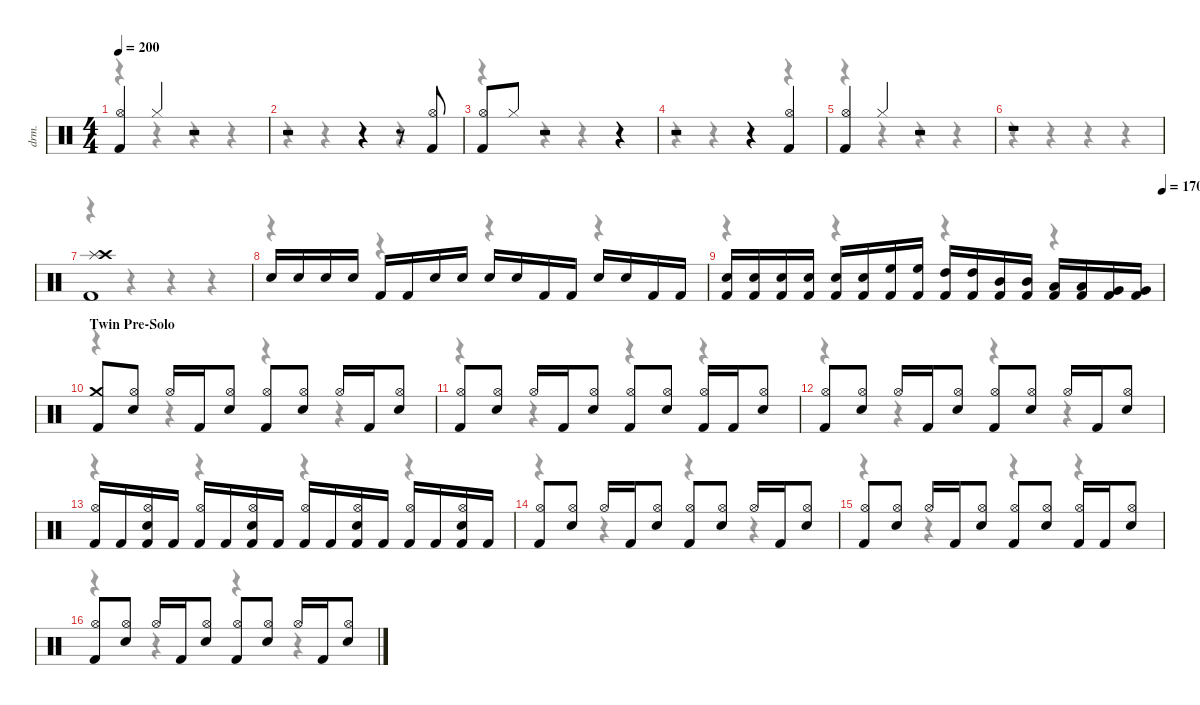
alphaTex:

\defaultSystemsLayout 4
\hideDynamics
\bracketExtendMode nobrackets
\otherSystemsTrackNameOrientation horizontal
\track ("David Mackintosh (Drums)" "drm.") {instrument percussion}
\staff {score}
\articulation defaults
\voice
\ts (4 4)
\tempo 200
\clef neutral
\ks c
("Kick (hit) 2" "Hi-Hat (open)").4{dy f} "Hi-Hat (closed)".4{dy ppp} r.2 |
r.2 r.4 r.8 ("Kick (hit) 2" "Hi-Hat (open)").8{dy f} |
("Kick (hit) 2" "Hi-Hat (open)").8 "Hi-Hat (closed)".8{dy ppp} r.2 r.4 |
r.2 r.4 ("Kick (hit) 2" "Hi-Hat (open)").4{dy f} |
("Kick (hit) 2" "Hi-Hat (open)").4 "Hi-Hat (closed)".4{dy ppp} r.2 |
r.1 |
("Kick (hit) 2" "Splash (hit)" "Crash high (hit)").1{dy f} |
"Snare (hit) 2".16 "Snare (hit) 2".16 "Snare (hit) 2".16 "Snare (hit) 2".16 "Kick (hit) 2".16 "Kick (hit) 2".16 "Snare (hit) 2".16 "Snare (hit) 2".16 "Snare (hit) 2".16 "Snare (hit) 2".16 "Kick (hit) 2".16 "Kick (hit) 2".16 "Snare (hit) 2".16 "Snare (hit) 2".16 "Kick (hit) 2".16 "Kick (hit) 2".16 |
\tempo (170 1)
("Kick (hit) 2" "Snare (hit) 2").16 ("Kick (hit) 2" "Snare (hit) 2").16 ("Kick (hit) 2" "Snare (hit) 2").16 ("Kick (hit) 2" "Snare (hit) 2").16 ("Kick (hit) 2" "Snare (hit) 2").16 ("Kick (hit) 2" "Snare (hit) 2").16 ("Kick (hit) 2" "High Floor Tom (hit)").16 ("Kick (hit) 2" "High Floor Tom (hit)").16 ("Kick (hit) 2" "High Tom (hit)").16 ("Kick (hit) 2" "High Tom (hit)").16 ("Kick (hit) 2" "Mid Tom (hit)").16 ("Kick (hit) 2" "Mid Tom (hit)").16 ("Kick (hit) 2" "Low Tom (hit)").16 ("Kick (hit) 2" "Low Tom (hit)").16 ("Kick (hit) 2" "Very Low Tom (hit)").16 ("Kick (hit) 2" "Very Low Tom (hit)").16 |
\section ("" "Twin Pre-Solo")
("Kick (hit) 2" "Crash medium (hit)").8 ("Snare (hit) 2" "Hi-Hat (open)").8 "Hi-Hat (open)".16 "Kick (hit) 2".16 ("Snare (hit) 2" "Hi-Hat (open)").8 ("Kick (hit) 2" "Hi-Hat (open)").8 ("Snare (hit) 2" "Hi-Hat (open)").8 "Hi-Hat (open)".16 "Kick (hit) 2".16 ("Snare (hit) 2" "Hi-Hat (open)").8 |
("Kick (hit) 2" "Hi-Hat (open)").8 ("Snare (hit) 2" "Hi-Hat (open)").8 "Hi-Hat (open)".16 "Kick (hit) 2".16 ("Snare (hit) 2" "Hi-Hat (open)").8 ("Kick (hit) 2" "Hi-Hat (open)").8 ("Snare (hit) 2" "Hi-Hat (open)").8 ("Kick (hit) 2" "Hi-Hat (open)").16 "Kick (hit) 2".16 ("Snare (hit) 2" "Hi-Hat (open)").8 |
("Kick (hit) 2" "Hi-Hat (open)").8 ("Snare (hit) 2" "Hi-Hat (open)").8 "Hi-Hat (open)".16 "Kick (hit) 2".16 ("Snare (hit) 2" "Hi-Hat (open)").8 ("Kick (hit) 2" "Hi-Hat (open)").8 ("Snare (hit) 2" "Hi-Hat (open)").8 "Hi-Hat (open)".16 "Kick (hit) 2".16 ("Snare (hit) 2" "Hi-Hat (open)").8 |
("Kick (hit) 2" "Hi-Hat (open)").16 "Kick (hit) 2".16 ("Kick (hit) 2" "Snare (hit) 2" "Hi-Hat (open)").16 "Kick (hit) 2".16 ("Kick (hit) 2" "Hi-Hat (open)").16 "Kick (hit) 2".16 ("Kick (hit) 2" "Snare (hit) 2" "Hi-Hat (open)").16 "Kick (hit) 2".16 ("Kick (hit) 2" "Hi-Hat (open)").16 "Kick (hit) 2".16 ("Kick (hit) 2" "Snare (hit) 2" "Hi-Hat (open)").16 "Kick (hit) 2".16 ("Kick (hit) 2" "Hi-Hat (open)").16 "Kick (hit) 2".16 ("Kick (hit) 2" "Snare (hit) 2" "Hi-Hat (open)").16 "Kick (hit) 2".16 |
("Kick (hit) 2" "Hi-Hat (open)").8 ("Snare (hit) 2" "Hi-Hat (open)").8 "Hi-Hat (open)".16 "Kick (hit) 2".16 ("Snare (hit) 2" "Hi-Hat (open)").8 ("Kick (hit) 2" "Hi-Hat (open)").8 ("Snare (hit) 2" "Hi-Hat (open)").8 "Hi-Hat (open)".16 "Kick (hit) 2".16 ("Snare (hit) 2" "Hi-Hat (open)").8 |
("Kick (hit) 2" "Hi-Hat (open)").8 ("Snare (hit) 2" "Hi-Hat (open)").8 "Hi-Hat (open)".16 "Kick (hit) 2".16 ("Snare (hit) 2" "Hi-Hat (open)").8 ("Kick (hit) 2" "Hi-Hat (open)").8 ("Snare (hit) 2" "Hi-Hat (open)").8 ("Kick (hit) 2" "Hi-Hat (open)").16 "Kick (hit) 2".16 ("Snare (hit) 2" "Hi-Hat (open)").8 |
("Kick (hit) 2" "Hi-Hat (open)").8 ("Snare (hit) 2" "Hi-Hat (open)").8 "Hi-Hat (open)".16 "Kick (hit) 2".16 ("Snare (hit) 2" "Hi-Hat (open)").8 ("Kick (hit) 2" "Hi-Hat (open)").8 ("Snare (hit) 2" "Hi-Hat (open)").8 "Hi-Hat (open)".16 "Kick (hit) 2".16 ("Snare (hit) 2" "Hi-Hat (open)").8
\voice
\clef neutral
\ottava regular
\simile none
\ks c
r.4{dy mf} r.4 r.4 r.4 |
r.4 r.4 r.4 r.4 |
r.4 r.4 r.4 r.4 |
r.4 r.4 r.4 r.4 |
r.4 r.4 r.4 r.4 |
r.4 r.4 r.4 r.4 |
r.4 r.4 r.4 r.4 |
r.4 r.4 r.4 r.4 |
r.4 r.4 r.4 r.4 |
r.4 r.4 r.4 r.4 |
r.4 r.4 r.4 r.4 |
r.4 r.4 r.4 r.4 |
r.4 r.4 r.4 r.4 |
r.4 r.4 r.4 r.4 |
r.4 r.4 r.4 r.4 |
r.4 r.4 r.4 r.4
